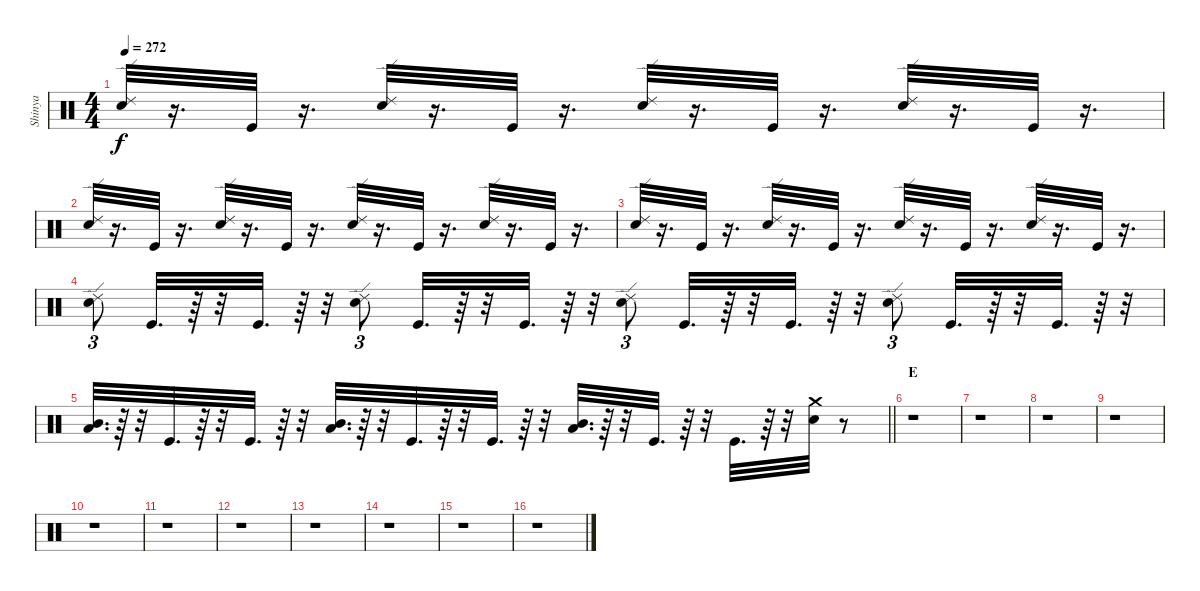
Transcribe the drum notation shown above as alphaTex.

\track ("Shinya" "Shinya") {instrument percussion}
\staff {score}
\articulation defaults
\ts (4 4)
\tempo 272
\clef neutral
\ks c
("Snare (hit) 2" "Ride (edge) 2").32{dy f} r.16{d} "Kick (hit)".32 r.16{d} ("Snare (hit) 2" "Ride (edge) 2").32 r.16{d} "Kick (hit)".32 r.16{d} ("Snare (hit) 2" "Ride (edge) 2").32 r.16{d} "Kick (hit)".32 r.16{d} ("Snare (hit) 2" "Ride (edge) 2").32 r.16{d} "Kick (hit)".32 r.16{d} |
("Snare (hit) 2" "Ride (edge) 2").32 r.16{d} "Kick (hit)".32 r.16{d} ("Snare (hit) 2" "Ride (edge) 2").32 r.16{d} "Kick (hit)".32 r.16{d} ("Snare (hit) 2" "Ride (edge) 2").32 r.16{d} "Kick (hit)".32 r.16{d} ("Snare (hit) 2" "Ride (edge) 2").32 r.16{d} "Kick (hit)".32 r.16{d} |
("Snare (hit) 2" "Ride (edge) 2").32 r.16{d} "Kick (hit)".32 r.16{d} ("Snare (hit) 2" "Ride (edge) 2").32 r.16{d} "Kick (hit)".32 r.16{d} ("Snare (hit) 2" "Ride (edge) 2").32 r.16{d} "Kick (hit)".32 r.16{d} ("Snare (hit) 2" "Ride (edge) 2").32 r.16{d} "Kick (hit)".32 r.16{d} |
("Ride (edge) 2" "Snare (hit) 2").8{tu (3 2)} "Kick (hit)".32{d} r.64 r.32 "Kick (hit)".32{d} r.64 r.32 ("Snare (hit) 2" "Ride (edge) 2").8{tu (3 2)} "Kick (hit)".32{d} r.64 r.32 "Kick (hit)".32{d} r.64 r.32 ("Snare (hit) 2" "Ride (edge) 2").8{tu (3 2)} "Kick (hit)".32{d} r.64 r.32 "Kick (hit)".32{d} r.64 r.32 ("Snare (hit) 2" "Ride (edge) 2").8{tu (3 2)} "Kick (hit)".32{d} r.64 r.32 "Kick (hit)".32{d} r.64 r.32 |
\barLineRight lightlight
("Low Tom (hit)" "Mid Tom (hit)").32{d} r.64 r.32 "Kick (hit)".32{d} r.64 r.32 "Kick (hit)".32{d} r.64 r.32 ("Mid Tom (hit)" "Low Tom (hit)").32{d} r.64 r.32 "Kick (hit)".32{d} r.64 r.32 "Kick (hit)".32{d} r.64 r.32 ("Low Tom (hit)" "Mid Tom (hit)").32{d} r.64 r.32 "Kick (hit)".32{d} r.64 r.32 "Kick (hit)".32{d} r.64 r.32 ("Crash medium (hit)" "Snare (hit) 2").32 r.8 |
\section ("" "E")
r.1 |
r.1 |
r.1 |
r.1 |
r.1 |
r.1 |
r.1 |
r.1 |
r.1 |
r.1 |
r.1
